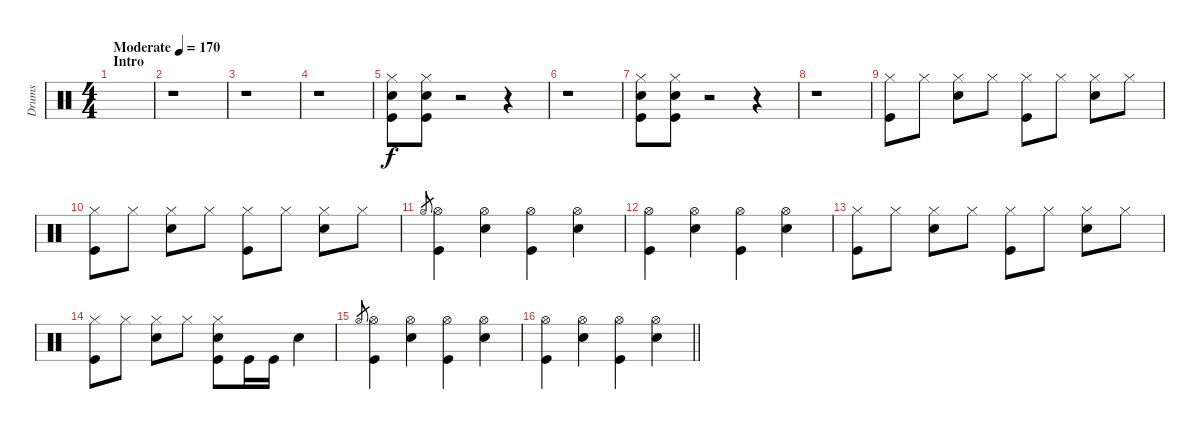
\track ("Drums" "Drums") {instrument percussion}
\staff {score}
\articulation defaults
\ts (4 4)
\section ("" "Intro")
\tempo (170 "Moderate")
\clef neutral
\ks c
|
r.1 |
r.1 |
r.1 |
("Hi-Hat (closed)" "Snare (hit) 2" "Kick (hit)").8 ("Hi-Hat (closed)" "Snare (hit) 2" "Kick (hit)").8 r.2 r.4 |
r.1 |
("Hi-Hat (closed)" "Snare (hit) 2" "Kick (hit)").8 ("Hi-Hat (closed)" "Snare (hit) 2" "Kick (hit)").8 r.2 r.4 |
r.1 |
("Hi-Hat (closed)" "Kick (hit)").8 "Hi-Hat (closed)".8 ("Hi-Hat (closed)" "Snare (hit) 2").8 "Hi-Hat (closed)".8 ("Hi-Hat (closed)" "Kick (hit)").8 "Hi-Hat (closed)".8 ("Hi-Hat (closed)" "Snare (hit) 2").8 "Hi-Hat (closed)".8 |
("Hi-Hat (closed)" "Kick (hit)").8 "Hi-Hat (closed)".8 ("Hi-Hat (closed)" "Snare (hit) 2").8 "Hi-Hat (closed)".8 ("Hi-Hat (closed)" "Kick (hit)").8 "Hi-Hat (closed)".8 ("Hi-Hat (closed)" "Snare (hit) 2").8 "Hi-Hat (closed)".8 |
"Hi-Hat (open)".8{gr} ("Hi-Hat (open)" "Kick (hit)").4 ("Hi-Hat (open)" "Snare (hit) 2").4 ("Hi-Hat (open)" "Kick (hit)").4 ("Hi-Hat (open)" "Snare (hit) 2").4 |
("Hi-Hat (open)" "Kick (hit)").4 ("Hi-Hat (open)" "Snare (hit) 2").4 ("Hi-Hat (open)" "Kick (hit)").4 ("Hi-Hat (open)" "Snare (hit) 2").4 |
("Hi-Hat (closed)" "Kick (hit)").8 "Hi-Hat (closed)".8 ("Hi-Hat (closed)" "Snare (hit) 2").8 "Hi-Hat (closed)".8 ("Hi-Hat (closed)" "Kick (hit)").8 "Hi-Hat (closed)".8 ("Hi-Hat (closed)" "Snare (hit) 2").8 "Hi-Hat (closed)".8 |
("Hi-Hat (closed)" "Kick (hit)").8 "Hi-Hat (closed)".8 ("Hi-Hat (closed)" "Snare (hit) 2").8 "Hi-Hat (closed)".8 ("Hi-Hat (closed)" "Snare (hit) 2" "Kick (hit)").8 "Kick (hit)".16 "Kick (hit)".16 "Snare (hit) 2".4 |
"Hi-Hat (open)".8{gr} ("Hi-Hat (open)" "Kick (hit)").4 ("Hi-Hat (open)" "Snare (hit) 2").4 ("Hi-Hat (open)" "Kick (hit)").4 ("Hi-Hat (open)" "Snare (hit) 2").4 |
\barLineRight lightlight
("Hi-Hat (open)" "Kick (hit)").4 ("Hi-Hat (open)" "Snare (hit) 2").4 ("Hi-Hat (open)" "Kick (hit)").4 ("Hi-Hat (open)" "Snare (hit) 2").4
